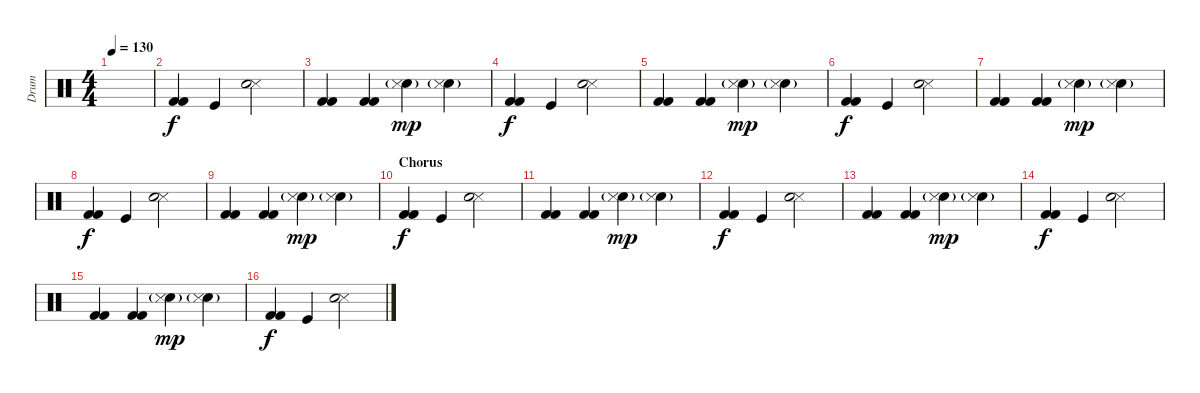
\track ("Drum" "Drum") {instrument percussion}
\staff {score}
\articulation defaults
\ts (4 4)
\tempo 130
\clef neutral
\ks c
|
("Kick (hit) 2" "Kick (hit) 2").4{dy f} "Kick (hit)".4 ("Snare (side stick) 3" "Snare (hit) 2").2 |
("Kick (hit) 2" "Kick (hit) 2").4 ("Kick (hit) 2" "Kick (hit) 2").4 ("Snare (hit) 2" "Snare (side stick) 3"{g}).4{dy mp} ("Snare (hit) 2"{g} "Snare (side stick) 3").4 |
("Kick (hit) 2" "Kick (hit) 2").4{dy f} "Kick (hit)".4 ("Snare (side stick) 3" "Snare (hit) 2").2 |
("Kick (hit) 2" "Kick (hit) 2").4 ("Kick (hit) 2" "Kick (hit) 2").4 ("Snare (hit) 2" "Snare (side stick) 3"{g}).4{dy mp} ("Snare (hit) 2"{g} "Snare (side stick) 3").4 |
("Kick (hit) 2" "Kick (hit) 2").4{dy f} "Kick (hit)".4 ("Snare (side stick) 3" "Snare (hit) 2").2 |
("Kick (hit) 2" "Kick (hit) 2").4 ("Kick (hit) 2" "Kick (hit) 2").4 ("Snare (hit) 2" "Snare (side stick) 3"{g}).4{dy mp} ("Snare (hit) 2"{g} "Snare (side stick) 3").4 |
("Kick (hit) 2" "Kick (hit) 2").4{dy f} "Kick (hit)".4 ("Snare (side stick) 3" "Snare (hit) 2").2 |
("Kick (hit) 2" "Kick (hit) 2").4 ("Kick (hit) 2" "Kick (hit) 2").4 ("Snare (hit) 2" "Snare (side stick) 3"{g}).4{dy mp} ("Snare (hit) 2"{g} "Snare (side stick) 3").4 |
\section ("" "Chorus")
("Kick (hit) 2" "Kick (hit) 2").4{dy f} "Kick (hit)".4 ("Snare (side stick) 3" "Snare (hit) 2").2 |
("Kick (hit) 2" "Kick (hit) 2").4 ("Kick (hit) 2" "Kick (hit) 2").4 ("Snare (hit) 2" "Snare (side stick) 3"{g}).4{dy mp} ("Snare (hit) 2"{g} "Snare (side stick) 3").4 |
("Kick (hit) 2" "Kick (hit) 2").4{dy f} "Kick (hit)".4 ("Snare (side stick) 3" "Snare (hit) 2").2 |
("Kick (hit) 2" "Kick (hit) 2").4 ("Kick (hit) 2" "Kick (hit) 2").4 ("Snare (hit) 2" "Snare (side stick) 3"{g}).4{dy mp} ("Snare (hit) 2"{g} "Snare (side stick) 3").4 |
("Kick (hit) 2" "Kick (hit) 2").4{dy f} "Kick (hit)".4 ("Snare (side stick) 3" "Snare (hit) 2").2 |
("Kick (hit) 2" "Kick (hit) 2").4 ("Kick (hit) 2" "Kick (hit) 2").4 ("Snare (hit) 2" "Snare (side stick) 3"{g}).4{dy mp} ("Snare (hit) 2"{g} "Snare (side stick) 3").4 |
("Kick (hit) 2" "Kick (hit) 2").4{dy f} "Kick (hit)".4 ("Snare (side stick) 3" "Snare (hit) 2").2
